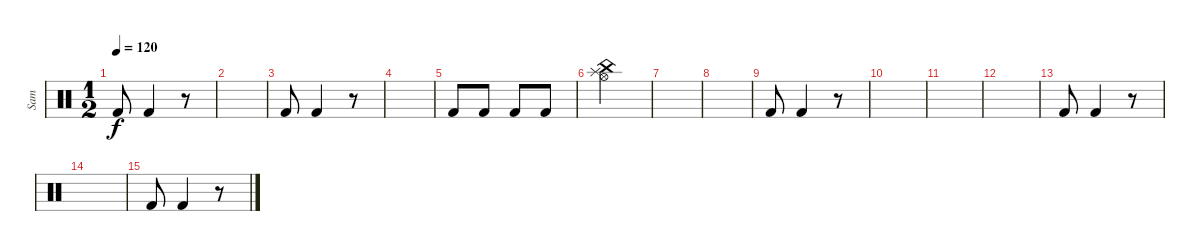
\track ("Sam" "Sam") {instrument percussion}
\staff {score}
\articulation defaults
\ts (1 2)
\tempo 120
\clef neutral
\ks c "Kick (hit) 2".8{dy f} "Kick (hit) 2".4
r.8 |
|
"Kick (hit) 2".8 "Kick (hit) 2".4 r.8 |
|
"Kick (hit) 2".8 "Kick (hit) 2".8 "Kick (hit) 2".8 "Kick (hit) 2".8 |
("Hi-Hat (open)" "Splash (hit)" "China (hit)").2 |
|
|
"Kick (hit) 2".8 "Kick (hit) 2".4 r.8 |
|
|
|
"Kick (hit) 2".8 "Kick (hit) 2".4 r.8 |
|
"Kick (hit) 2".8 "Kick (hit) 2".4 r.8
